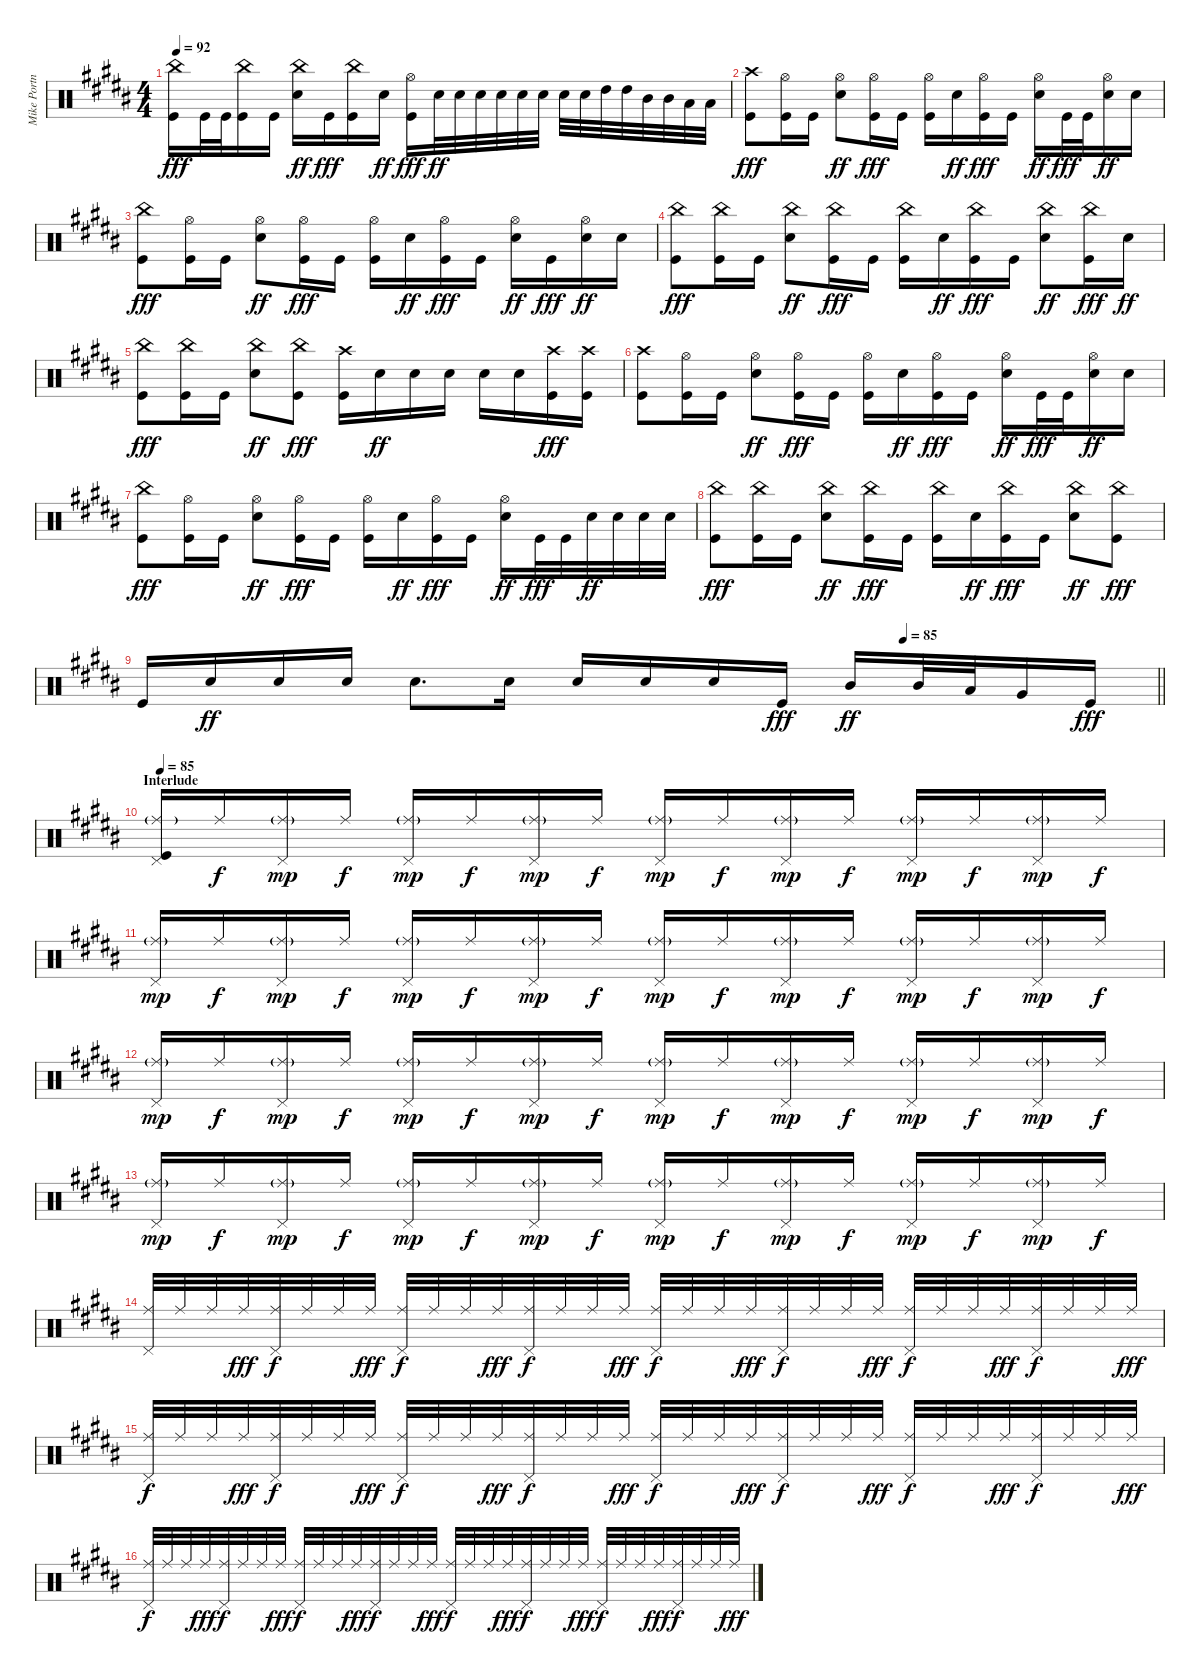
\track ("Mike Portnoy" "Mike Portn") {instrument percussion}
\staff {score}
\articulation defaults
\ts (4 4)
\tempo 92
\clef neutral
\ks b
("China (hit)" "Kick (hit)").16{dy fff} "Kick (hit)".32 "Kick (hit)".32 ("China (hit)" "Kick (hit)").16 "Kick (hit)".16 ("China (hit)" "Electric Snare (hit)").16{dy ff} "Kick (hit)".16{dy fff} ("China (hit)" "Kick (hit)").16 "Electric Snare (hit)".16{dy ff} ("Hi-Hat (open)" "Kick (hit)").16{dy fff} "Electric Snare (hit)".32{dy ff} "Electric Snare (hit)".32 "Electric Snare (hit)".32 "Electric Snare (hit)".32 "Electric Snare (hit)".32 "Electric Snare (hit)".32 "Electric Snare (hit)".32 "Electric Snare (hit)".32 "High Tom (hit)".32 "High Tom (hit)".32 "Mid Tom (hit)".32 "Mid Tom (hit)".32 "Low Tom (hit)".32 "Low Tom (hit)".32 |
("Crash high (hit)" "Kick (hit)").8{dy fff} ("Hi-Hat (open)" "Kick (hit)").16 "Kick (hit)".16 ("Hi-Hat (open)" "Electric Snare (hit)").8{dy ff} ("Hi-Hat (open)" "Kick (hit)").16{dy fff} "Kick (hit)".16 ("Hi-Hat (open)" "Kick (hit)").16 "Electric Snare (hit)".16{dy ff} ("Hi-Hat (open)" "Kick (hit)").16{dy fff} "Kick (hit)".16 ("Hi-Hat (open)" "Electric Snare (hit)").16{dy ff} "Kick (hit)".32{dy fff} "Kick (hit)".32 ("Hi-Hat (open)" "Electric Snare (hit)").16{dy ff} "Electric Snare (hit)".16 |
("China (hit)" "Kick (hit)").8{dy fff} ("Hi-Hat (open)" "Kick (hit)").16 "Kick (hit)".16 ("Hi-Hat (open)" "Electric Snare (hit)").8{dy ff} ("Hi-Hat (open)" "Kick (hit)").16{dy fff} "Kick (hit)".16 ("Hi-Hat (open)" "Kick (hit)").16 "Electric Snare (hit)".16{dy ff} ("Hi-Hat (open)" "Kick (hit)").16{dy fff} "Kick (hit)".16 ("Hi-Hat (open)" "Electric Snare (hit)").16{dy ff} "Kick (hit)".16{dy fff} ("Hi-Hat (open)" "Electric Snare (hit)").16{dy ff} "Electric Snare (hit)".16 |
("China (hit)" "Kick (hit)").8{dy fff} ("China (hit)" "Kick (hit)").16 "Kick (hit)".16 ("China (hit)" "Electric Snare (hit)").8{dy ff} ("China (hit)" "Kick (hit)").16{dy fff} "Kick (hit)".16 ("China (hit)" "Kick (hit)").16 "Electric Snare (hit)".16{dy ff} ("China (hit)" "Kick (hit)").16{dy fff} "Kick (hit)".16 ("China (hit)" "Electric Snare (hit)").8{dy ff} ("China (hit)" "Kick (hit)").16{dy fff} "Electric Snare (hit)".16{dy ff} |
("China (hit)" "Kick (hit)").8{dy fff} ("China (hit)" "Kick (hit)").16 "Kick (hit)".16 ("China (hit)" "Electric Snare (hit)").8{dy ff} ("China (hit)" "Kick (hit)").8{dy fff} ("Crash high (hit)" "Kick (hit)").16 "Electric Snare (hit)".16{dy ff} "Electric Snare (hit)".16 "Electric Snare (hit)".16 "Electric Snare (hit)".16 "Electric Snare (hit)".16 ("Crash high (hit)" "Kick (hit)").16{dy fff} ("Crash high (hit)" "Kick (hit)").16 |
("Crash high (hit)" "Kick (hit)").8 ("Hi-Hat (open)" "Kick (hit)").16 "Kick (hit)".16 ("Hi-Hat (open)" "Electric Snare (hit)").8{dy ff} ("Hi-Hat (open)" "Kick (hit)").16{dy fff} "Kick (hit)".16 ("Hi-Hat (open)" "Kick (hit)").16 "Electric Snare (hit)".16{dy ff} ("Hi-Hat (open)" "Kick (hit)").16{dy fff} "Kick (hit)".16 ("Hi-Hat (open)" "Electric Snare (hit)").16{dy ff} "Kick (hit)".32{dy fff} "Kick (hit)".32 ("Hi-Hat (open)" "Electric Snare (hit)").16{dy ff} "Electric Snare (hit)".16 |
("China (hit)" "Kick (hit)").8{dy fff} ("Hi-Hat (open)" "Kick (hit)").16 "Kick (hit)".16 ("Hi-Hat (open)" "Electric Snare (hit)").8{dy ff} ("Hi-Hat (open)" "Kick (hit)").16{dy fff} "Kick (hit)".16 ("Hi-Hat (open)" "Kick (hit)").16 "Electric Snare (hit)".16{dy ff} ("Hi-Hat (open)" "Kick (hit)").16{dy fff} "Kick (hit)".16 ("Hi-Hat (open)" "Electric Snare (hit)").16{dy ff} "Kick (hit)".32{dy fff} "Kick (hit)".32 "Electric Snare (hit)".32{dy ff} "Electric Snare (hit)".32 "Electric Snare (hit)".32 "Electric Snare (hit)".32 |
("China (hit)" "Kick (hit)").8{dy fff} ("China (hit)" "Kick (hit)").16 "Kick (hit)".16 ("China (hit)" "Electric Snare (hit)").8{dy ff} ("China (hit)" "Kick (hit)").16{dy fff} "Kick (hit)".16 ("China (hit)" "Kick (hit)").16 "Electric Snare (hit)".16{dy ff} ("China (hit)" "Kick (hit)").16{dy fff} "Kick (hit)".16 ("China (hit)" "Electric Snare (hit)").8{dy ff} ("China (hit)" "Kick (hit)").8{dy fff} |
\tempo (85 0.75)
\barLineRight lightlight "Kick (hit)".16 "Electric Snare (hit)".16{dy ff} "Electric Snare (hit)".16 "Electric Snare (hit)".16 "Electric Snare (hit)".8{d} "Electric Snare (hit)".16 "Electric Snare (hit)".16 "Electric Snare (hit)".16 "Electric Snare (hit)".16 "Kick (hit)".16{dy fff} "Mid Tom (hit)".16{dy ff} "Mid Tom (hit)".32 "Low Tom (hit)".32 "Very Low Tom (hit)".16 "Kick (hit)".16{dy fff}
|
\section ("" "Interlude")
\tempo 85
("Ride (middle)"{g} "Kick (hit)" "Pedal Hi-Hat (hit)").16 "Ride (middle)".16{dy f} ("Ride (middle)"{g} "Pedal Hi-Hat (hit)").16{dy mp} "Ride (middle)".16{dy f} ("Ride (middle)"{g} "Pedal Hi-Hat (hit)").16{dy mp} "Ride (middle)".16{dy f} ("Ride (middle)"{g} "Pedal Hi-Hat (hit)").16{dy mp} "Ride (middle)".16{dy f} ("Ride (middle)"{g} "Pedal Hi-Hat (hit)").16{dy mp} "Ride (middle)".16{dy f} ("Ride (middle)"{g} "Pedal Hi-Hat (hit)").16{dy mp} "Ride (middle)".16{dy f} ("Ride (middle)"{g} "Pedal Hi-Hat (hit)").16{dy mp} "Ride (middle)".16{dy f} ("Ride (middle)"{g} "Pedal Hi-Hat (hit)").16{dy mp} "Ride (middle)".16{dy f} |
("Ride (middle)"{g} "Pedal Hi-Hat (hit)").16{dy mp} "Ride (middle)".16{dy f} ("Ride (middle)"{g} "Pedal Hi-Hat (hit)").16{dy mp} "Ride (middle)".16{dy f} ("Ride (middle)"{g} "Pedal Hi-Hat (hit)").16{dy mp} "Ride (middle)".16{dy f} ("Ride (middle)"{g} "Pedal Hi-Hat (hit)").16{dy mp} "Ride (middle)".16{dy f} ("Ride (middle)"{g} "Pedal Hi-Hat (hit)").16{dy mp} "Ride (middle)".16{dy f} ("Ride (middle)"{g} "Pedal Hi-Hat (hit)").16{dy mp} "Ride (middle)".16{dy f} ("Ride (middle)"{g} "Pedal Hi-Hat (hit)").16{dy mp} "Ride (middle)".16{dy f} ("Ride (middle)"{g} "Pedal Hi-Hat (hit)").16{dy mp} "Ride (middle)".16{dy f} |
("Ride (middle)"{g} "Pedal Hi-Hat (hit)").16{dy mp} "Ride (middle)".16{dy f} ("Ride (middle)"{g} "Pedal Hi-Hat (hit)").16{dy mp} "Ride (middle)".16{dy f} ("Ride (middle)"{g} "Pedal Hi-Hat (hit)").16{dy mp} "Ride (middle)".16{dy f} ("Ride (middle)"{g} "Pedal Hi-Hat (hit)").16{dy mp} "Ride (middle)".16{dy f} ("Ride (middle)"{g} "Pedal Hi-Hat (hit)").16{dy mp} "Ride (middle)".16{dy f} ("Ride (middle)"{g} "Pedal Hi-Hat (hit)").16{dy mp} "Ride (middle)".16{dy f} ("Ride (middle)"{g} "Pedal Hi-Hat (hit)").16{dy mp} "Ride (middle)".16{dy f} ("Ride (middle)"{g} "Pedal Hi-Hat (hit)").16{dy mp} "Ride (middle)".16{dy f} |
("Ride (middle)"{g} "Pedal Hi-Hat (hit)").16{dy mp} "Ride (middle)".16{dy f} ("Ride (middle)"{g} "Pedal Hi-Hat (hit)").16{dy mp} "Ride (middle)".16{dy f} ("Ride (middle)"{g} "Pedal Hi-Hat (hit)").16{dy mp} "Ride (middle)".16{dy f} ("Ride (middle)"{g} "Pedal Hi-Hat (hit)").16{dy mp} "Ride (middle)".16{dy f} ("Ride (middle)"{g} "Pedal Hi-Hat (hit)").16{dy mp} "Ride (middle)".16{dy f} ("Ride (middle)"{g} "Pedal Hi-Hat (hit)").16{dy mp} "Ride (middle)".16{dy f} ("Ride (middle)"{g} "Pedal Hi-Hat (hit)").16{dy mp} "Ride (middle)".16{dy f} ("Ride (middle)"{g} "Pedal Hi-Hat (hit)").16{dy mp} "Ride (middle)".16{dy f} |
("Ride (middle)" "Pedal Hi-Hat (hit)").32 "Ride (middle)".32 "Ride (middle)".32 "Ride (middle)".32{dy fff} ("Ride (middle)" "Pedal Hi-Hat (hit)").32{dy f} "Ride (middle)".32 "Ride (middle)".32 "Ride (middle)".32{dy fff} ("Ride (middle)" "Pedal Hi-Hat (hit)").32{dy f} "Ride (middle)".32 "Ride (middle)".32 "Ride (middle)".32{dy fff} ("Ride (middle)" "Pedal Hi-Hat (hit)").32{dy f} "Ride (middle)".32 "Ride (middle)".32 "Ride (middle)".32{dy fff} ("Ride (middle)" "Pedal Hi-Hat (hit)").32{dy f} "Ride (middle)".32 "Ride (middle)".32 "Ride (middle)".32{dy fff} ("Ride (middle)" "Pedal Hi-Hat (hit)").32{dy f} "Ride (middle)".32 "Ride (middle)".32 "Ride (middle)".32{dy fff} ("Ride (middle)" "Pedal Hi-Hat (hit)").32{dy f} "Ride (middle)".32 "Ride (middle)".32 "Ride (middle)".32{dy fff} ("Ride (middle)" "Pedal Hi-Hat (hit)").32{dy f} "Ride (middle)".32 "Ride (middle)".32 "Ride (middle)".32{dy fff} |
("Ride (middle)" "Pedal Hi-Hat (hit)").32{dy f} "Ride (middle)".32 "Ride (middle)".32 "Ride (middle)".32{dy fff} ("Ride (middle)" "Pedal Hi-Hat (hit)").32{dy f} "Ride (middle)".32 "Ride (middle)".32 "Ride (middle)".32{dy fff} ("Ride (middle)" "Pedal Hi-Hat (hit)").32{dy f} "Ride (middle)".32 "Ride (middle)".32 "Ride (middle)".32{dy fff} ("Ride (middle)" "Pedal Hi-Hat (hit)").32{dy f} "Ride (middle)".32 "Ride (middle)".32 "Ride (middle)".32{dy fff} ("Ride (middle)" "Pedal Hi-Hat (hit)").32{dy f} "Ride (middle)".32 "Ride (middle)".32 "Ride (middle)".32{dy fff} ("Ride (middle)" "Pedal Hi-Hat (hit)").32{dy f} "Ride (middle)".32 "Ride (middle)".32 "Ride (middle)".32{dy fff} ("Ride (middle)" "Pedal Hi-Hat (hit)").32{dy f} "Ride (middle)".32 "Ride (middle)".32 "Ride (middle)".32{dy fff} ("Ride (middle)" "Pedal Hi-Hat (hit)").32{dy f} "Ride (middle)".32 "Ride (middle)".32 "Ride (middle)".32{dy fff} |
("Ride (middle)" "Pedal Hi-Hat (hit)").32{dy f} "Ride (middle)".32 "Ride (middle)".32 "Ride (middle)".32{dy fff} ("Ride (middle)" "Pedal Hi-Hat (hit)").32{dy f} "Ride (middle)".32 "Ride (middle)".32 "Ride (middle)".32{dy fff} ("Ride (middle)" "Pedal Hi-Hat (hit)").32{dy f} "Ride (middle)".32 "Ride (middle)".32 "Ride (middle)".32{dy fff} ("Ride (middle)" "Pedal Hi-Hat (hit)").32{dy f} "Ride (middle)".32 "Ride (middle)".32 "Ride (middle)".32{dy fff} ("Ride (middle)" "Pedal Hi-Hat (hit)").32{dy f} "Ride (middle)".32 "Ride (middle)".32 "Ride (middle)".32{dy fff} ("Ride (middle)" "Pedal Hi-Hat (hit)").32{dy f} "Ride (middle)".32 "Ride (middle)".32 "Ride (middle)".32{dy fff} ("Ride (middle)" "Pedal Hi-Hat (hit)").32{dy f} "Ride (middle)".32 "Ride (middle)".32 "Ride (middle)".32{dy fff} ("Ride (middle)" "Pedal Hi-Hat (hit)").32{dy f} "Ride (middle)".32 "Ride (middle)".32 "Ride (middle)".32{dy fff}
